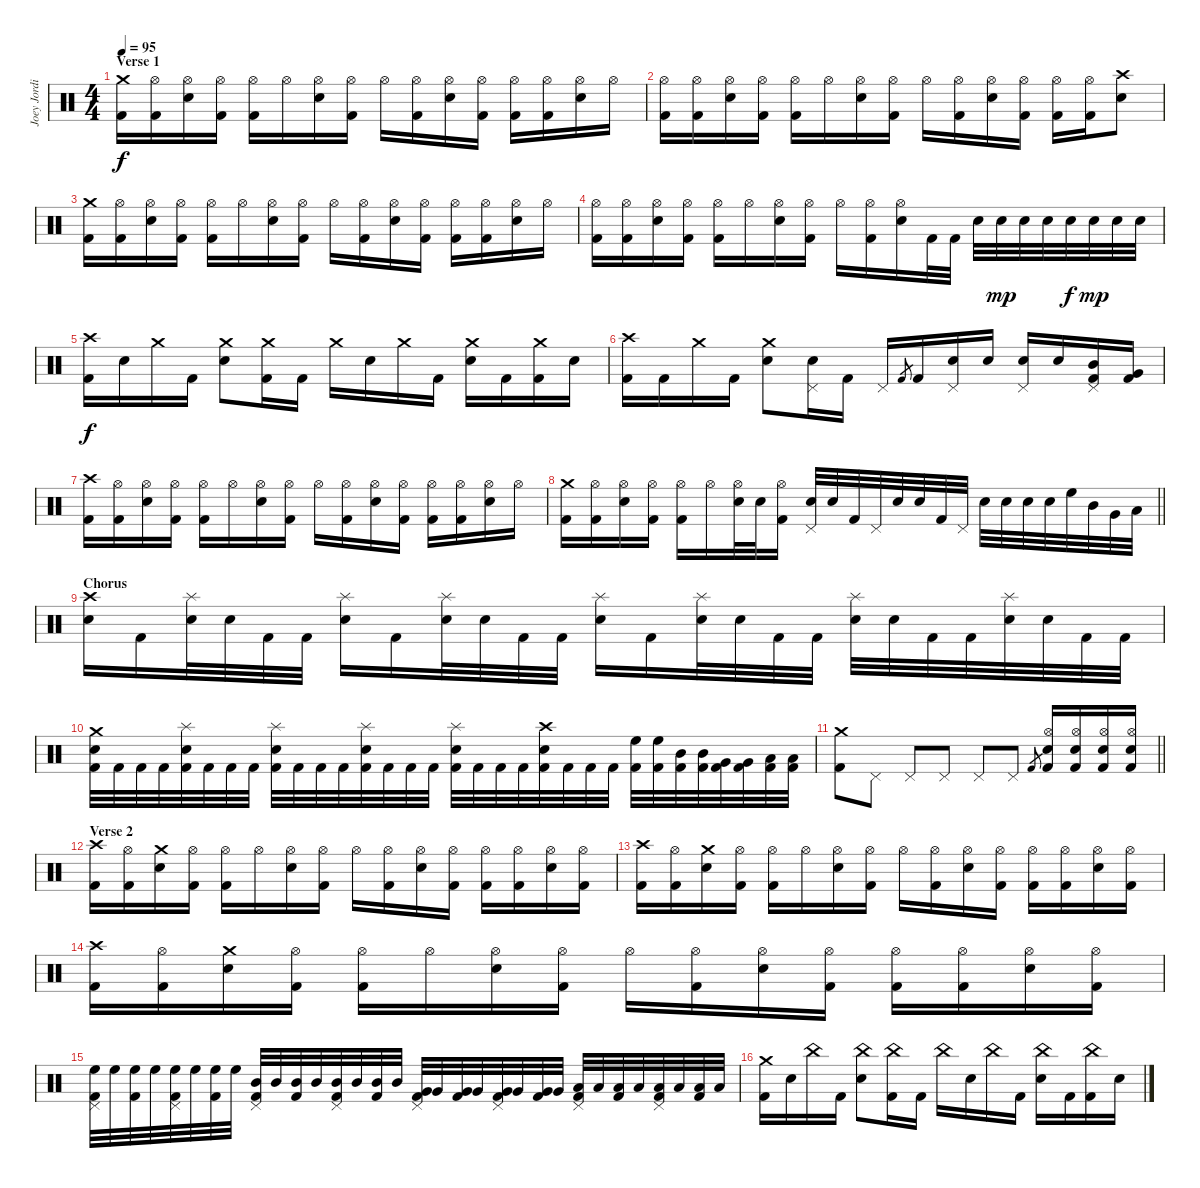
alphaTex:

\track ("Joey Jordison" "Joey Jordi") {instrument percussion}
\staff {score}
\articulation defaults
\ts (4 4)
\section ("" "Verse 1")
\tempo 95
\clef neutral
\ks c
("Crash medium (hit)" "Kick (hit) 2").16{dy f} ("Hi-Hat (open)" "Kick (hit) 2").16 ("Hi-Hat (open)" "Electric Snare (hit)").16 ("Hi-Hat (open)" "Kick (hit) 2").16 ("Hi-Hat (open)" "Kick (hit) 2").16 "Hi-Hat (open)".16 ("Hi-Hat (open)" "Electric Snare (hit)").16 ("Hi-Hat (open)" "Kick (hit) 2").16 "Hi-Hat (open)".16 ("Hi-Hat (open)" "Kick (hit) 2").16 ("Hi-Hat (open)" "Electric Snare (hit)").16 ("Hi-Hat (open)" "Kick (hit) 2").16 ("Hi-Hat (open)" "Kick (hit) 2").16 ("Hi-Hat (open)" "Kick (hit) 2").16 ("Hi-Hat (open)" "Electric Snare (hit)").16 "Hi-Hat (open)".16 |
("Hi-Hat (open)" "Kick (hit) 2").16 ("Hi-Hat (open)" "Kick (hit) 2").16 ("Hi-Hat (open)" "Electric Snare (hit)").16 ("Hi-Hat (open)" "Kick (hit) 2").16 ("Hi-Hat (open)" "Kick (hit) 2").16 "Hi-Hat (open)".16 ("Hi-Hat (open)" "Electric Snare (hit)").16 ("Hi-Hat (open)" "Kick (hit) 2").16 "Hi-Hat (open)".16 ("Hi-Hat (open)" "Kick (hit) 2").16 ("Hi-Hat (open)" "Electric Snare (hit)").16 ("Hi-Hat (open)" "Kick (hit) 2").16 ("Hi-Hat (open)" "Kick (hit) 2").16 ("Hi-Hat (open)" "Kick (hit) 2").16 ("Crash high (hit)" "Electric Snare (hit)").8 |
("Crash medium (hit)" "Kick (hit) 2").16 ("Hi-Hat (open)" "Kick (hit) 2").16 ("Hi-Hat (open)" "Electric Snare (hit)").16 ("Hi-Hat (open)" "Kick (hit) 2").16 ("Hi-Hat (open)" "Kick (hit) 2").16 "Hi-Hat (open)".16 ("Hi-Hat (open)" "Electric Snare (hit)").16 ("Hi-Hat (open)" "Kick (hit) 2").16 "Hi-Hat (open)".16 ("Hi-Hat (open)" "Kick (hit) 2").16 ("Hi-Hat (open)" "Electric Snare (hit)").16 ("Hi-Hat (open)" "Kick (hit) 2").16 ("Hi-Hat (open)" "Kick (hit) 2").16 ("Hi-Hat (open)" "Kick (hit) 2").16 ("Hi-Hat (open)" "Electric Snare (hit)").16 "Hi-Hat (open)".16 |
("Hi-Hat (open)" "Kick (hit) 2").16 ("Hi-Hat (open)" "Kick (hit) 2").16 ("Hi-Hat (open)" "Electric Snare (hit)").16 ("Hi-Hat (open)" "Kick (hit) 2").16 ("Hi-Hat (open)" "Kick (hit) 2").16 "Hi-Hat (open)".16 ("Hi-Hat (open)" "Electric Snare (hit)").16 ("Hi-Hat (open)" "Kick (hit) 2").16 "Hi-Hat (open)".16 ("Hi-Hat (open)" "Kick (hit) 2").16 ("Hi-Hat (open)" "Electric Snare (hit)").16 "Kick (hit) 2".32 "Kick (hit) 2".32 "Electric Snare (hit)".32 "Electric Snare (hit)".32{dy mp} "Electric Snare (hit)".32 "Electric Snare (hit)".32 "Electric Snare (hit)".32{dy f} "Electric Snare (hit)".32{dy mp} "Electric Snare (hit)".32 "Electric Snare (hit)".32 |
("Crash high (hit)" "Kick (hit) 2").16{dy f} "Electric Snare (hit)".16 "Crash medium (hit)".16 "Kick (hit) 2".16 ("Crash medium (hit)" "Electric Snare (hit)").8 ("Crash medium (hit)" "Kick (hit) 2").16 "Kick (hit) 2".16 "Crash medium (hit)".16 "Electric Snare (hit)".16 "Crash medium (hit)".16 "Kick (hit) 2".16 ("Crash medium (hit)" "Electric Snare (hit)").16 "Kick (hit) 2".16 ("Crash medium (hit)" "Kick (hit) 2").16 "Electric Snare (hit)".16 |
("Crash high (hit)" "Kick (hit) 2").16 "Kick (hit) 2".16 "Crash medium (hit)".16 "Kick (hit) 2".16 ("Crash medium (hit)" "Electric Snare (hit)").8 ("Pedal Hi-Hat (hit)" "Electric Snare (hit)").16 "Kick (hit) 2".16 "Pedal Hi-Hat (hit)".16 "Kick (hit) 2".8{gr} "Kick (hit) 2".16 ("Pedal Hi-Hat (hit)" "Electric Snare (hit)").16 "Electric Snare (hit)".16 ("Pedal Hi-Hat (hit)" "Electric Snare (hit)").16 "Electric Snare (hit)".16 ("Pedal Hi-Hat (hit)" "Mid Tom (hit)" "Kick (hit) 2").16 ("Very Low Tom (hit)" "Kick (hit) 2").16 |
("Crash high (hit)" "Kick (hit) 2").16 ("Hi-Hat (open)" "Kick (hit) 2").16 ("Hi-Hat (open)" "Electric Snare (hit)").16 ("Hi-Hat (open)" "Kick (hit) 2").16 ("Hi-Hat (open)" "Kick (hit) 2").16 "Hi-Hat (open)".16 ("Hi-Hat (open)" "Electric Snare (hit)").16 ("Hi-Hat (open)" "Kick (hit) 2").16 "Hi-Hat (open)".16 ("Hi-Hat (open)" "Kick (hit) 2").16 ("Hi-Hat (open)" "Electric Snare (hit)").16 ("Hi-Hat (open)" "Kick (hit) 2").16 ("Hi-Hat (open)" "Kick (hit) 2").16 ("Hi-Hat (open)" "Kick (hit) 2").16 ("Hi-Hat (open)" "Electric Snare (hit)").16 "Hi-Hat (open)".16 |
\barLineRight lightlight
("Crash medium (hit)" "Kick (hit) 2").16 ("Hi-Hat (open)" "Kick (hit) 2").16 ("Hi-Hat (open)" "Electric Snare (hit)").16 ("Hi-Hat (open)" "Kick (hit) 2").16 ("Hi-Hat (open)" "Kick (hit) 2").16 "Hi-Hat (open)".16 ("Hi-Hat (open)" "Electric Snare (hit)").32 "Electric Snare (hit)".32 ("Hi-Hat (open)" "Kick (hit) 2").16 ("Pedal Hi-Hat (hit)" "Electric Snare (hit)").32 "Electric Snare (hit)".32 "Kick (hit) 2".32 "Pedal Hi-Hat (hit)".32 "Electric Snare (hit)".32 "Electric Snare (hit)".32 "Kick (hit) 2".32 "Pedal Hi-Hat (hit)".32 "Electric Snare (hit)".32 "Electric Snare (hit)".32 "Electric Snare (hit)".32 "Electric Snare (hit)".32 "High Floor Tom (hit)".32 "Mid Tom (hit)".32 "Very Low Tom (hit)".32 "Low Floor Tom (hit)".32 |
\section ("" "Chorus")
("Crash high (hit)" "Electric Snare (hit)").16 "Kick (hit) 2".16 ("Splash (hit)" "Electric Snare (hit)").32 "Electric Snare (hit)".32 "Kick (hit) 2".32 "Kick (hit) 2".32 ("Splash (hit)" "Electric Snare (hit)").16 "Kick (hit) 2".16 ("Splash (hit)" "Electric Snare (hit)").32 "Electric Snare (hit)".32 "Kick (hit) 2".32 "Kick (hit) 2".32 ("Splash (hit)" "Electric Snare (hit)").16 "Kick (hit) 2".16 ("Splash (hit)" "Electric Snare (hit)").32 "Electric Snare (hit)".32 "Kick (hit) 2".32 "Kick (hit) 2".32 ("Splash (hit)" "Electric Snare (hit)").32 "Electric Snare (hit)".32 "Kick (hit) 2".32 "Kick (hit) 2".32 ("Splash (hit)" "Electric Snare (hit)").32 "Electric Snare (hit)".32 "Kick (hit) 2".32 "Kick (hit) 2".32 |
("Crash medium (hit)" "Electric Snare (hit)" "Kick (hit) 2").32 "Kick (hit) 2".32 "Kick (hit) 2".32 "Kick (hit) 2".32 ("Splash (hit)" "Electric Snare (hit)" "Kick (hit) 2").32 "Kick (hit) 2".32 "Kick (hit) 2".32 "Kick (hit) 2".32 ("Splash (hit)" "Electric Snare (hit)" "Kick (hit) 2").32 "Kick (hit) 2".32 "Kick (hit) 2".32 "Kick (hit) 2".32 ("Splash (hit)" "Electric Snare (hit)" "Kick (hit) 2").32 "Kick (hit) 2".32 "Kick (hit) 2".32 "Kick (hit) 2".32 ("Splash (hit)" "Electric Snare (hit)" "Kick (hit) 2").32 "Kick (hit) 2".32 "Kick (hit) 2".32 "Kick (hit) 2".32 ("Crash high (hit)" "Electric Snare (hit)" "Kick (hit) 2").32 "Kick (hit) 2".32 "Kick (hit) 2".32 "Kick (hit) 2".32 ("High Floor Tom (hit)" "Kick (hit) 2").32 ("High Floor Tom (hit)" "Kick (hit) 2").32 ("Mid Tom (hit)" "Kick (hit) 2").32 ("Mid Tom (hit)" "Kick (hit) 2").32 ("Very Low Tom (hit)" "Kick (hit) 2").32 ("Very Low Tom (hit)" "Kick (hit) 2").32 ("Low Floor Tom (hit)" "Kick (hit) 2").32 ("Low Floor Tom (hit)" "Kick (hit) 2").32 |
\barLineRight lightlight
("Crash medium (hit)" "Kick (hit) 2").8 "Pedal Hi-Hat (hit)".8 "Pedal Hi-Hat (hit)".8 "Pedal Hi-Hat (hit)".8 "Pedal Hi-Hat (hit)".8 "Pedal Hi-Hat (hit)".8 "Kick (hit) 2".8{gr} ("Hi-Hat (open)" "Electric Snare (hit)" "Kick (hit) 2").16 ("Hi-Hat (open)" "Electric Snare (hit)" "Kick (hit) 2").16 ("Hi-Hat (open)" "Electric Snare (hit)" "Kick (hit) 2").16 ("Hi-Hat (open)" "Electric Snare (hit)" "Kick (hit) 2").16 |
\section ("" "Verse 2")
("Crash high (hit)" "Kick (hit) 2").16 ("Hi-Hat (open)" "Kick (hit) 2").16 ("Crash medium (hit)" "Electric Snare (hit)").16 ("Hi-Hat (open)" "Kick (hit) 2").16 ("Hi-Hat (open)" "Kick (hit) 2").16 "Hi-Hat (open)".16 ("Hi-Hat (open)" "Electric Snare (hit)").16 ("Hi-Hat (open)" "Kick (hit) 2").16 "Hi-Hat (open)".16 ("Hi-Hat (open)" "Kick (hit) 2").16 ("Hi-Hat (open)" "Electric Snare (hit)").16 ("Hi-Hat (open)" "Kick (hit) 2").16 ("Hi-Hat (open)" "Kick (hit) 2").16 ("Hi-Hat (open)" "Kick (hit) 2").16 ("Hi-Hat (open)" "Electric Snare (hit)").16 ("Hi-Hat (open)" "Kick (hit) 2").16 |
("Crash high (hit)" "Kick (hit) 2").16 ("Hi-Hat (open)" "Kick (hit) 2").16 ("Crash medium (hit)" "Electric Snare (hit)").16 ("Hi-Hat (open)" "Kick (hit) 2").16 ("Hi-Hat (open)" "Kick (hit) 2").16 "Hi-Hat (open)".16 ("Hi-Hat (open)" "Electric Snare (hit)").16 ("Hi-Hat (open)" "Kick (hit) 2").16 "Hi-Hat (open)".16 ("Hi-Hat (open)" "Kick (hit) 2").16 ("Hi-Hat (open)" "Electric Snare (hit)").16 ("Hi-Hat (open)" "Kick (hit) 2").16 ("Hi-Hat (open)" "Kick (hit) 2").16 ("Hi-Hat (open)" "Kick (hit) 2").16 ("Hi-Hat (open)" "Electric Snare (hit)").16 ("Hi-Hat (open)" "Kick (hit) 2").16 |
("Crash high (hit)" "Kick (hit) 2").16 ("Hi-Hat (open)" "Kick (hit) 2").16 ("Crash medium (hit)" "Electric Snare (hit)").16 ("Hi-Hat (open)" "Kick (hit) 2").16 ("Hi-Hat (open)" "Kick (hit) 2").16 "Hi-Hat (open)".16 ("Hi-Hat (open)" "Electric Snare (hit)").16 ("Hi-Hat (open)" "Kick (hit) 2").16 "Hi-Hat (open)".16 ("Hi-Hat (open)" "Kick (hit) 2").16 ("Hi-Hat (open)" "Electric Snare (hit)").16 ("Hi-Hat (open)" "Kick (hit) 2").16 ("Hi-Hat (open)" "Kick (hit) 2").16 ("Hi-Hat (open)" "Kick (hit) 2").16 ("Hi-Hat (open)" "Electric Snare (hit)").16 ("Hi-Hat (open)" "Kick (hit) 2").16 |
("Pedal Hi-Hat (hit)" "High Floor Tom (hit)" "Kick (hit) 2").32 "High Floor Tom (hit)".32 ("High Floor Tom (hit)" "Kick (hit) 2").32 "High Floor Tom (hit)".32 ("Pedal Hi-Hat (hit)" "High Floor Tom (hit)" "Kick (hit) 2").32 "High Floor Tom (hit)".32 ("High Floor Tom (hit)" "Kick (hit) 2").32 "High Floor Tom (hit)".32 ("Pedal Hi-Hat (hit)" "Mid Tom (hit)" "Kick (hit) 2").32 "Mid Tom (hit)".32 ("Mid Tom (hit)" "Kick (hit) 2").32 "Mid Tom (hit)".32 ("Pedal Hi-Hat (hit)" "Mid Tom (hit)" "Kick (hit) 2").32 "Mid Tom (hit)".32 ("Mid Tom (hit)" "Kick (hit) 2").32 "Mid Tom (hit)".32 ("Pedal Hi-Hat (hit)" "Very Low Tom (hit)" "Kick (hit) 2").32 "Very Low Tom (hit)".32 ("Very Low Tom (hit)" "Kick (hit) 2").32 "Very Low Tom (hit)".32 ("Pedal Hi-Hat (hit)" "Very Low Tom (hit)" "Kick (hit) 2").32 "Very Low Tom (hit)".32 ("Very Low Tom (hit)" "Kick (hit) 2").32 "Very Low Tom (hit)".32 ("Pedal Hi-Hat (hit)" "Low Floor Tom (hit)" "Kick (hit) 2").32 "Low Floor Tom (hit)".32 ("Low Floor Tom (hit)" "Kick (hit) 2").32 "Low Floor Tom (hit)".32 ("Pedal Hi-Hat (hit)" "Low Floor Tom (hit)" "Kick (hit) 2").32 "Low Floor Tom (hit)".32 ("Low Floor Tom (hit)" "Kick (hit) 2").32 "Low Floor Tom (hit)".32 |
("Crash medium (hit)" "Kick (hit) 2").16 "Electric Snare (hit)".16 "China (hit)".16 "Kick (hit) 2".16 ("China (hit)" "Electric Snare (hit)").8 ("China (hit)" "Kick (hit) 2").16 "Kick (hit) 2".16 "China (hit)".16 "Electric Snare (hit)".16 "China (hit)".16 "Kick (hit) 2".16 ("China (hit)" "Electric Snare (hit)").16 "Kick (hit) 2".16 ("China (hit)" "Kick (hit) 2").16 "Electric Snare (hit)".16
